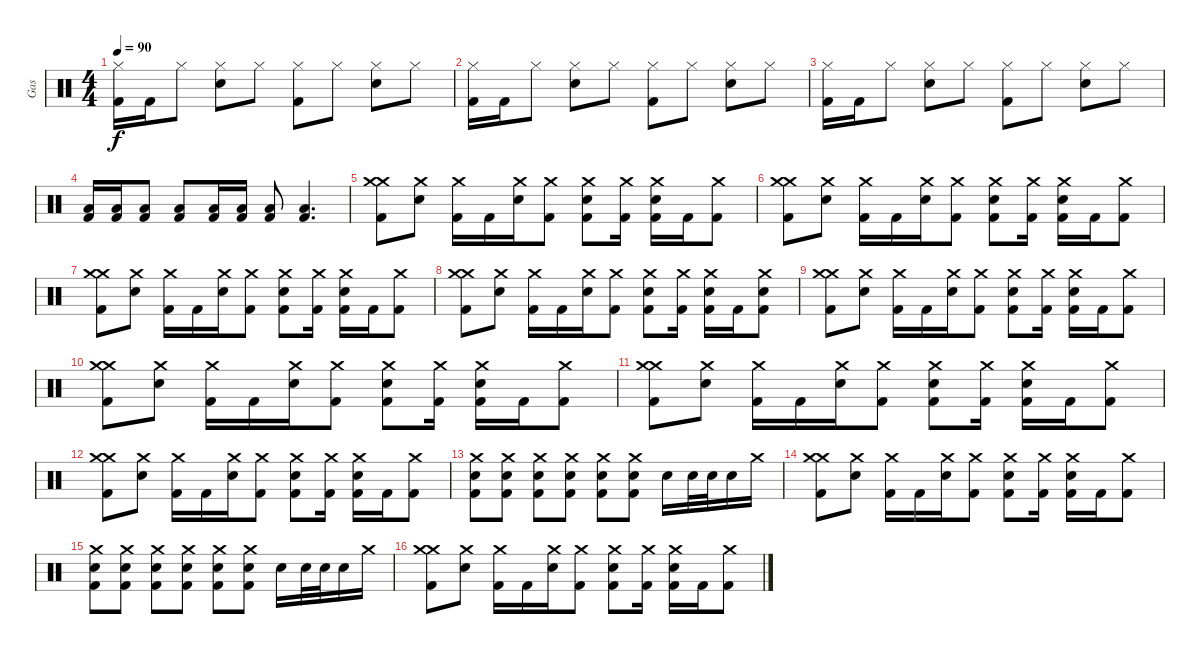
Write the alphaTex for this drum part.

\track ("Gas" "Gas") {instrument percussion}
\staff {score}
\articulation defaults
\ts (4 4)
\tempo 90
\clef neutral
\ks c
("Hi-Hat (closed)" "Kick (hit) 2").16{dy f} "Kick (hit) 2".16 "Hi-Hat (closed)".8 ("Snare (hit) 2" "Hi-Hat (closed)").8 "Hi-Hat (closed)".8 ("Hi-Hat (closed)" "Kick (hit) 2").8 "Hi-Hat (closed)".8 ("Snare (hit) 2" "Hi-Hat (closed)").8 "Hi-Hat (closed)".8 |
("Hi-Hat (closed)" "Kick (hit) 2").16 "Kick (hit) 2".16 "Hi-Hat (closed)".8 ("Snare (hit) 2" "Hi-Hat (closed)").8 "Hi-Hat (closed)".8 ("Hi-Hat (closed)" "Kick (hit) 2").8 "Hi-Hat (closed)".8 ("Snare (hit) 2" "Hi-Hat (closed)").8 "Hi-Hat (closed)".8 |
("Hi-Hat (closed)" "Kick (hit) 2").16 "Kick (hit) 2".16 "Hi-Hat (closed)".8 ("Snare (hit) 2" "Hi-Hat (closed)").8 "Hi-Hat (closed)".8 ("Hi-Hat (closed)" "Kick (hit) 2").8 "Hi-Hat (closed)".8 ("Snare (hit) 2" "Hi-Hat (closed)").8 "Hi-Hat (closed)".8 |
("Low Floor Tom (hit)" "Kick (hit) 2").16 ("Low Floor Tom (hit)" "Kick (hit) 2").16 ("Low Floor Tom (hit)" "Kick (hit) 2").8 ("Low Floor Tom (hit)" "Kick (hit) 2").8 ("Low Floor Tom (hit)" "Kick (hit) 2").16 ("Low Floor Tom (hit)" "Kick (hit) 2").16 ("Low Floor Tom (hit)" "Kick (hit) 2").8 ("Low Floor Tom (hit)" "Kick (hit) 2").4{d} |
("Crash medium (hit)" "Crash medium (hit)" "Kick (hit) 2").8 ("Snare (hit) 2" "Crash medium (hit)").8 ("Crash medium (hit)" "Kick (hit) 2").16 "Kick (hit) 2".16 ("Snare (hit) 2" "Crash medium (hit)").16 ("Crash medium (hit)" "Kick (hit) 2").8 ("Snare (hit) 2" "Crash medium (hit)" "Kick (hit) 2").8 ("Crash medium (hit)" "Kick (hit) 2").16 ("Snare (hit) 2" "Crash medium (hit)" "Kick (hit) 2").16 "Kick (hit) 2".16 ("Crash medium (hit)" "Kick (hit) 2").8 |
("Crash medium (hit)" "Crash medium (hit)" "Kick (hit) 2").8 ("Snare (hit) 2" "Crash medium (hit)").8 ("Crash medium (hit)" "Kick (hit) 2").16 "Kick (hit) 2".16 ("Snare (hit) 2" "Crash medium (hit)").16 ("Crash medium (hit)" "Kick (hit) 2").8 ("Snare (hit) 2" "Crash medium (hit)" "Kick (hit) 2").8 ("Crash medium (hit)" "Kick (hit) 2").16 ("Snare (hit) 2" "Crash medium (hit)" "Kick (hit) 2").16 "Kick (hit) 2".16 ("Crash medium (hit)" "Kick (hit) 2").8 |
("Crash medium (hit)" "Crash medium (hit)" "Kick (hit) 2").8 ("Snare (hit) 2" "Crash medium (hit)").8 ("Crash medium (hit)" "Kick (hit) 2").16 "Kick (hit) 2".16 ("Snare (hit) 2" "Crash medium (hit)").16 ("Crash medium (hit)" "Kick (hit) 2").8 ("Snare (hit) 2" "Crash medium (hit)" "Kick (hit) 2").8 ("Crash medium (hit)" "Kick (hit) 2").16 ("Snare (hit) 2" "Crash medium (hit)" "Kick (hit) 2").16 "Kick (hit) 2".16 ("Crash medium (hit)" "Kick (hit) 2").8 |
("Crash medium (hit)" "Crash medium (hit)" "Kick (hit) 2").8 ("Snare (hit) 2" "Crash medium (hit)").8 ("Crash medium (hit)" "Kick (hit) 2").16 "Kick (hit) 2".16 ("Snare (hit) 2" "Crash medium (hit)").16 ("Crash medium (hit)" "Kick (hit) 2").8 ("Snare (hit) 2" "Crash medium (hit)" "Kick (hit) 2").8 ("Crash medium (hit)" "Kick (hit) 2").16 ("Snare (hit) 2" "Crash medium (hit)" "Kick (hit) 2").16 "Kick (hit) 2".16 ("Snare (hit) 2" "Crash medium (hit)" "Kick (hit) 2").8 |
("Crash medium (hit)" "Crash medium (hit)" "Kick (hit) 2").8 ("Snare (hit) 2" "Crash medium (hit)").8 ("Crash medium (hit)" "Kick (hit) 2").16 "Kick (hit) 2".16 ("Snare (hit) 2" "Crash medium (hit)").16 ("Crash medium (hit)" "Kick (hit) 2").8 ("Snare (hit) 2" "Crash medium (hit)" "Kick (hit) 2").8 ("Crash medium (hit)" "Kick (hit) 2").16 ("Snare (hit) 2" "Crash medium (hit)" "Kick (hit) 2").16 "Kick (hit) 2".16 ("Crash medium (hit)" "Kick (hit) 2").8 |
("Crash medium (hit)" "Crash medium (hit)" "Kick (hit) 2").8 ("Snare (hit) 2" "Crash medium (hit)").8 ("Crash medium (hit)" "Kick (hit) 2").16 "Kick (hit) 2".16 ("Snare (hit) 2" "Crash medium (hit)").16 ("Crash medium (hit)" "Kick (hit) 2").8 ("Snare (hit) 2" "Crash medium (hit)" "Kick (hit) 2").8 ("Crash medium (hit)" "Kick (hit) 2").16 ("Snare (hit) 2" "Crash medium (hit)" "Kick (hit) 2").16 "Kick (hit) 2".16 ("Crash medium (hit)" "Kick (hit) 2").8 |
("Crash medium (hit)" "Crash medium (hit)" "Kick (hit) 2").8 ("Snare (hit) 2" "Crash medium (hit)").8 ("Crash medium (hit)" "Kick (hit) 2").16 "Kick (hit) 2".16 ("Snare (hit) 2" "Crash medium (hit)").16 ("Crash medium (hit)" "Kick (hit) 2").8 ("Snare (hit) 2" "Crash medium (hit)" "Kick (hit) 2").8 ("Crash medium (hit)" "Kick (hit) 2").16 ("Snare (hit) 2" "Crash medium (hit)" "Kick (hit) 2").16 "Kick (hit) 2".16 ("Crash medium (hit)" "Kick (hit) 2").8 |
("Crash medium (hit)" "Crash medium (hit)" "Kick (hit) 2").8 ("Snare (hit) 2" "Crash medium (hit)").8 ("Crash medium (hit)" "Kick (hit) 2").16 "Kick (hit) 2".16 ("Snare (hit) 2" "Crash medium (hit)").16 ("Crash medium (hit)" "Kick (hit) 2").8 ("Snare (hit) 2" "Crash medium (hit)" "Kick (hit) 2").8 ("Crash medium (hit)" "Kick (hit) 2").16 ("Snare (hit) 2" "Crash medium (hit)" "Kick (hit) 2").16 "Kick (hit) 2".16 ("Crash medium (hit)" "Kick (hit) 2").8 |
("Crash medium (hit)" "Snare (hit) 2" "Kick (hit) 2").8 ("Crash medium (hit)" "Snare (hit) 2" "Kick (hit) 2").8 ("Crash medium (hit)" "Snare (hit) 2" "Kick (hit) 2").8 ("Crash medium (hit)" "Snare (hit) 2" "Kick (hit) 2").8 ("Crash medium (hit)" "Snare (hit) 2" "Kick (hit) 2").8 ("Crash medium (hit)" "Snare (hit) 2" "Kick (hit) 2").8 "Snare (hit) 2".16 "Snare (hit) 2".32 "Snare (hit) 2".32 "Snare (hit) 2".16 "Crash medium (hit)".16 |
("Crash medium (hit)" "Crash medium (hit)" "Kick (hit) 2").8 ("Snare (hit) 2" "Crash medium (hit)").8 ("Crash medium (hit)" "Kick (hit) 2").16 "Kick (hit) 2".16 ("Snare (hit) 2" "Crash medium (hit)").16 ("Crash medium (hit)" "Kick (hit) 2").8 ("Snare (hit) 2" "Crash medium (hit)" "Kick (hit) 2").8 ("Crash medium (hit)" "Kick (hit) 2").16 ("Snare (hit) 2" "Crash medium (hit)" "Kick (hit) 2").16 "Kick (hit) 2".16 ("Crash medium (hit)" "Kick (hit) 2").8 |
("Crash medium (hit)" "Snare (hit) 2" "Kick (hit) 2").8 ("Crash medium (hit)" "Snare (hit) 2" "Kick (hit) 2").8 ("Crash medium (hit)" "Snare (hit) 2" "Kick (hit) 2").8 ("Crash medium (hit)" "Snare (hit) 2" "Kick (hit) 2").8 ("Crash medium (hit)" "Snare (hit) 2" "Kick (hit) 2").8 ("Crash medium (hit)" "Snare (hit) 2" "Kick (hit) 2").8 "Snare (hit) 2".16 "Snare (hit) 2".32 "Snare (hit) 2".32 "Snare (hit) 2".16 "Crash medium (hit)".16 |
("Crash medium (hit)" "Crash medium (hit)" "Kick (hit) 2").8 ("Snare (hit) 2" "Crash medium (hit)").8 ("Crash medium (hit)" "Kick (hit) 2").16 "Kick (hit) 2".16 ("Snare (hit) 2" "Crash medium (hit)").16 ("Crash medium (hit)" "Kick (hit) 2").8 ("Snare (hit) 2" "Crash medium (hit)" "Kick (hit) 2").8 ("Crash medium (hit)" "Kick (hit) 2").16 ("Snare (hit) 2" "Crash medium (hit)" "Kick (hit) 2").16 "Kick (hit) 2".16 ("Crash medium (hit)" "Kick (hit) 2").8
